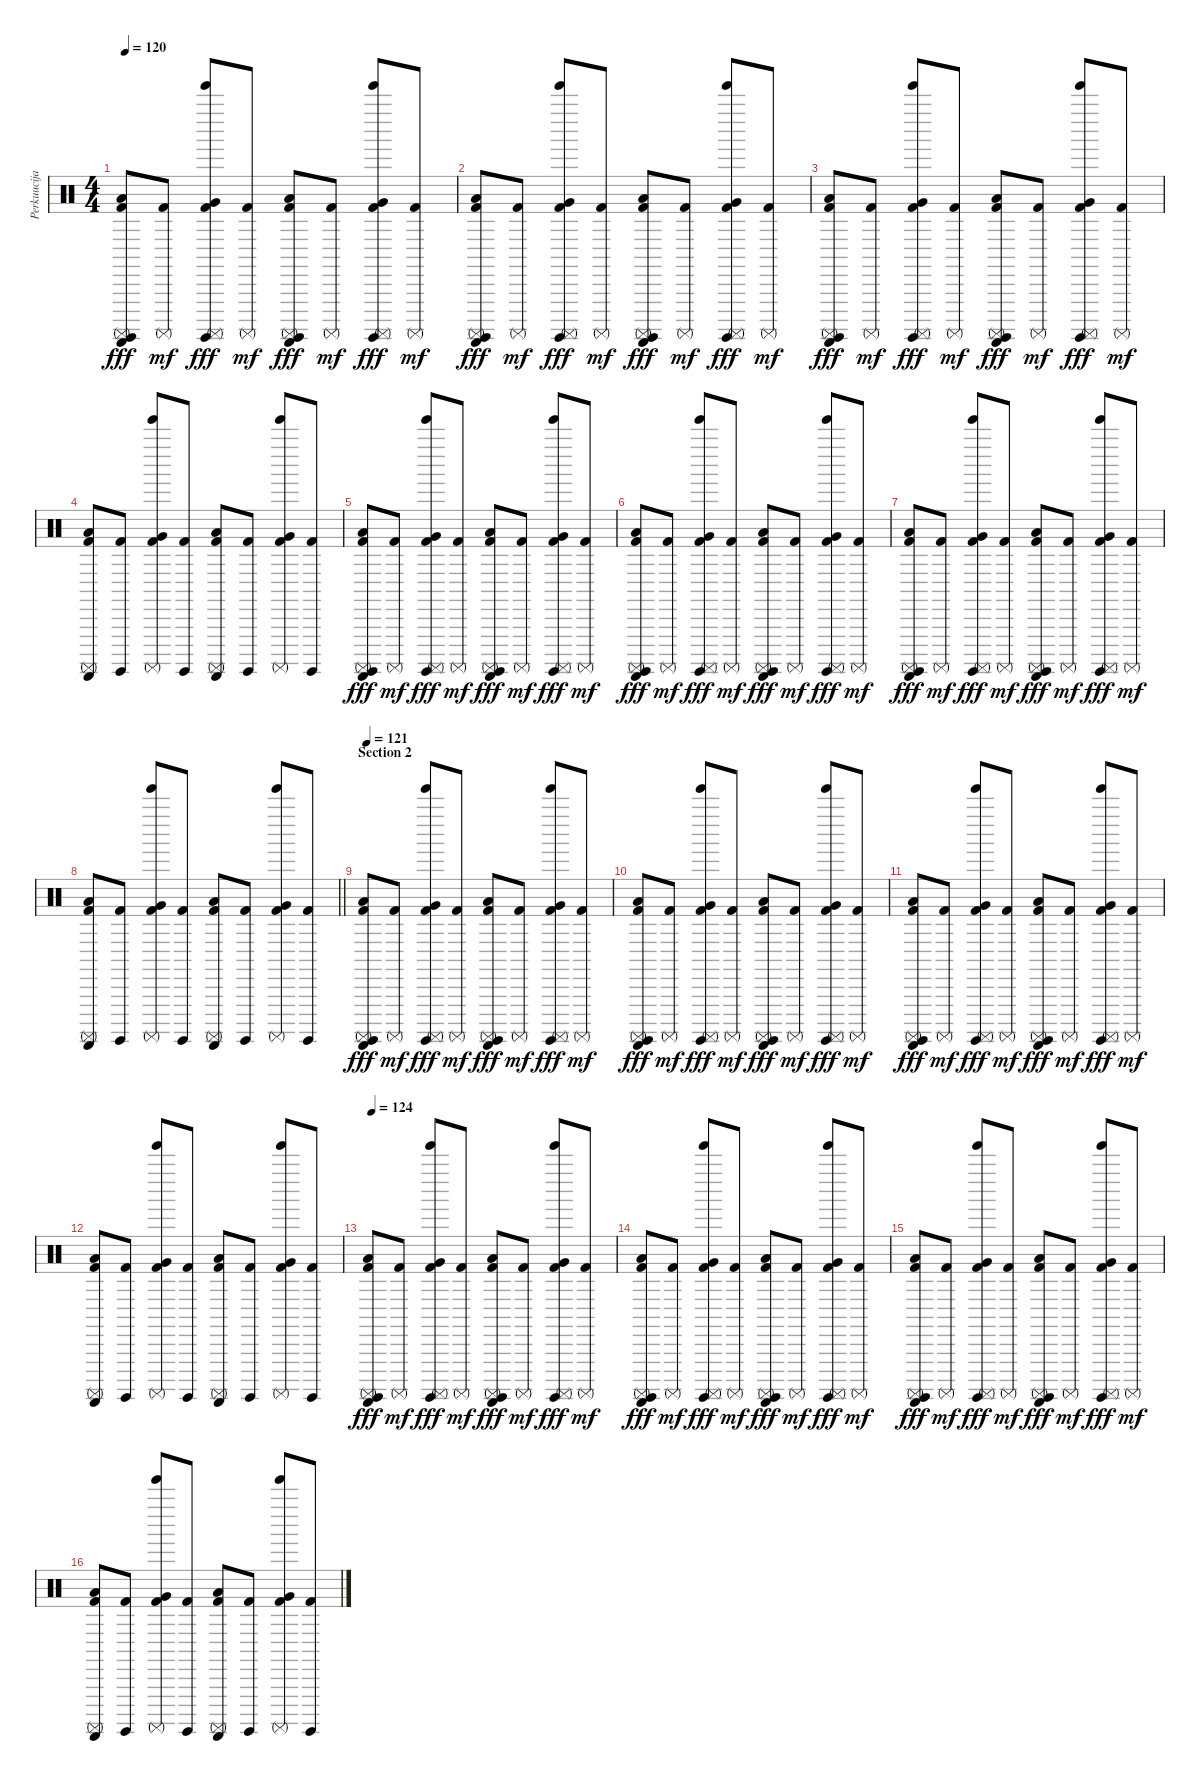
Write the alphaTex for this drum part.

\track ("Perkuucijas" "Perkuucija") {instrument percussion}
\staff {score}
\articulation defaults
\ts (4 4)
\tempo 120
\clef neutral
\ks c
("Kick (hit) 2" "Guiro (scrap-return)" "Low Floor Tom (hit)" "Surdo (hit)" "Surdo (mute)").8{dy fff} ("Kick (hit) 2" "Surdo (mute)").8{dy mf} ("Kick (hit) 2" "Tinkle Bell (hit)" "Very Low Tom (hit)" "Surdo (hit)" "Surdo (mute)").8{dy fff} ("Kick (hit) 2" "Surdo (mute)").8{dy mf} ("Kick (hit) 2" "Guiro (scrap-return)" "Low Tom (hit)" "Surdo (hit)" "Surdo (mute)").8{dy fff} ("Kick (hit) 2" "Surdo (mute)").8{dy mf} ("Kick (hit) 2" "Tinkle Bell (hit)" "Very Low Tom (hit)" "Surdo (hit)" "Surdo (mute)").8{dy fff} ("Kick (hit) 2" "Surdo (mute)").8{dy mf} |
("Kick (hit) 2" "Guiro (scrap-return)" "Low Floor Tom (hit)" "Surdo (hit)" "Surdo (mute)").8{dy fff} ("Kick (hit) 2" "Surdo (mute)").8{dy mf} ("Kick (hit) 2" "Tinkle Bell (hit)" "Very Low Tom (hit)" "Surdo (hit)" "Surdo (mute)").8{dy fff} ("Kick (hit) 2" "Surdo (mute)").8{dy mf} ("Kick (hit) 2" "Guiro (scrap-return)" "Low Tom (hit)" "Surdo (hit)" "Surdo (mute)").8{dy fff} ("Kick (hit) 2" "Surdo (mute)").8{dy mf} ("Kick (hit) 2" "Tinkle Bell (hit)" "Very Low Tom (hit)" "Surdo (hit)" "Surdo (mute)").8{dy fff} ("Kick (hit) 2" "Surdo (mute)").8{dy mf} |
("Kick (hit) 2" "Guiro (scrap-return)" "Low Floor Tom (hit)" "Surdo (hit)" "Surdo (mute)").8{dy fff} ("Kick (hit) 2" "Surdo (mute)").8{dy mf} ("Kick (hit) 2" "Tinkle Bell (hit)" "Very Low Tom (hit)" "Surdo (hit)" "Surdo (mute)").8{dy fff} ("Kick (hit) 2" "Surdo (mute)").8{dy mf} ("Kick (hit) 2" "Guiro (scrap-return)" "Low Tom (hit)" "Surdo (hit)" "Surdo (mute)").8{dy fff} ("Kick (hit) 2" "Surdo (mute)").8{dy mf} ("Kick (hit) 2" "Tinkle Bell (hit)" "Very Low Tom (hit)" "Surdo (hit)" "Surdo (mute)").8{dy fff} ("Kick (hit) 2" "Surdo (mute)").8{dy mf} |
("Kick (hit) 2" "Guiro (scrap-return)" "Low Floor Tom (hit)" "Surdo (mute)").8 ("Kick (hit) 2" "Surdo (hit)").8 ("Kick (hit) 2" "Tinkle Bell (hit)" "Very Low Tom (hit)" "Surdo (mute)").8 ("Kick (hit) 2" "Surdo (hit)").8 ("Kick (hit) 2" "Guiro (scrap-return)" "Low Tom (hit)" "Surdo (mute)").8 ("Kick (hit) 2" "Surdo (hit)").8 ("Kick (hit) 2" "Tinkle Bell (hit)" "Very Low Tom (hit)" "Surdo (mute)").8 ("Kick (hit) 2" "Surdo (hit)").8 |
("Kick (hit) 2" "Guiro (scrap-return)" "Low Floor Tom (hit)" "Surdo (hit)" "Surdo (mute)").8{dy fff} ("Kick (hit) 2" "Surdo (mute)").8{dy mf} ("Kick (hit) 2" "Tinkle Bell (hit)" "Very Low Tom (hit)" "Surdo (hit)" "Surdo (mute)").8{dy fff} ("Kick (hit) 2" "Surdo (mute)").8{dy mf} ("Kick (hit) 2" "Guiro (scrap-return)" "Low Tom (hit)" "Surdo (hit)" "Surdo (mute)").8{dy fff} ("Kick (hit) 2" "Surdo (mute)").8{dy mf} ("Kick (hit) 2" "Tinkle Bell (hit)" "Very Low Tom (hit)" "Surdo (hit)" "Surdo (mute)").8{dy fff} ("Kick (hit) 2" "Surdo (mute)").8{dy mf} |
("Kick (hit) 2" "Guiro (scrap-return)" "Low Floor Tom (hit)" "Surdo (hit)" "Surdo (mute)").8{dy fff} ("Kick (hit) 2" "Surdo (mute)").8{dy mf} ("Kick (hit) 2" "Tinkle Bell (hit)" "Very Low Tom (hit)" "Surdo (hit)" "Surdo (mute)").8{dy fff} ("Kick (hit) 2" "Surdo (mute)").8{dy mf} ("Kick (hit) 2" "Guiro (scrap-return)" "Low Tom (hit)" "Surdo (hit)" "Surdo (mute)").8{dy fff} ("Kick (hit) 2" "Surdo (mute)").8{dy mf} ("Kick (hit) 2" "Tinkle Bell (hit)" "Very Low Tom (hit)" "Surdo (hit)" "Surdo (mute)").8{dy fff} ("Kick (hit) 2" "Surdo (mute)").8{dy mf} |
("Kick (hit) 2" "Guiro (scrap-return)" "Low Floor Tom (hit)" "Surdo (hit)" "Surdo (mute)").8{dy fff} ("Kick (hit) 2" "Surdo (mute)").8{dy mf} ("Kick (hit) 2" "Tinkle Bell (hit)" "Very Low Tom (hit)" "Surdo (hit)" "Surdo (mute)").8{dy fff} ("Kick (hit) 2" "Surdo (mute)").8{dy mf} ("Kick (hit) 2" "Guiro (scrap-return)" "Low Tom (hit)" "Surdo (hit)" "Surdo (mute)").8{dy fff} ("Kick (hit) 2" "Surdo (mute)").8{dy mf} ("Kick (hit) 2" "Tinkle Bell (hit)" "Very Low Tom (hit)" "Surdo (hit)" "Surdo (mute)").8{dy fff} ("Kick (hit) 2" "Surdo (mute)").8{dy mf} |
\barLineRight lightlight
("Kick (hit) 2" "Guiro (scrap-return)" "Low Floor Tom (hit)" "Surdo (mute)").8 ("Kick (hit) 2" "Surdo (hit)").8 ("Kick (hit) 2" "Tinkle Bell (hit)" "Very Low Tom (hit)" "Surdo (mute)").8 ("Kick (hit) 2" "Surdo (hit)").8 ("Kick (hit) 2" "Guiro (scrap-return)" "Low Tom (hit)" "Surdo (mute)").8 ("Kick (hit) 2" "Surdo (hit)").8 ("Kick (hit) 2" "Tinkle Bell (hit)" "Very Low Tom (hit)" "Surdo (mute)").8 ("Kick (hit) 2" "Surdo (hit)").8 |
\section ("" "Section 2")
\tempo 121
("Kick (hit) 2" "Guiro (scrap-return)" "Low Floor Tom (hit)" "Surdo (hit)" "Surdo (mute)").8{dy fff} ("Kick (hit) 2" "Surdo (mute)").8{dy mf} ("Kick (hit) 2" "Tinkle Bell (hit)" "Very Low Tom (hit)" "Surdo (hit)" "Surdo (mute)").8{dy fff} ("Kick (hit) 2" "Surdo (mute)").8{dy mf} ("Kick (hit) 2" "Guiro (scrap-return)" "Low Tom (hit)" "Surdo (hit)" "Surdo (mute)").8{dy fff} ("Kick (hit) 2" "Surdo (mute)").8{dy mf} ("Kick (hit) 2" "Tinkle Bell (hit)" "Very Low Tom (hit)" "Surdo (hit)" "Surdo (mute)").8{dy fff} ("Kick (hit) 2" "Surdo (mute)").8{dy mf} |
("Kick (hit) 2" "Guiro (scrap-return)" "Low Floor Tom (hit)" "Surdo (hit)" "Surdo (mute)").8{dy fff} ("Kick (hit) 2" "Surdo (mute)").8{dy mf} ("Kick (hit) 2" "Tinkle Bell (hit)" "Very Low Tom (hit)" "Surdo (hit)" "Surdo (mute)").8{dy fff} ("Kick (hit) 2" "Surdo (mute)").8{dy mf} ("Kick (hit) 2" "Guiro (scrap-return)" "Low Tom (hit)" "Surdo (hit)" "Surdo (mute)").8{dy fff} ("Kick (hit) 2" "Surdo (mute)").8{dy mf} ("Kick (hit) 2" "Tinkle Bell (hit)" "Very Low Tom (hit)" "Surdo (hit)" "Surdo (mute)").8{dy fff} ("Kick (hit) 2" "Surdo (mute)").8{dy mf} |
("Kick (hit) 2" "Guiro (scrap-return)" "Low Floor Tom (hit)" "Surdo (hit)" "Surdo (mute)").8{dy fff} ("Kick (hit) 2" "Surdo (mute)").8{dy mf} ("Kick (hit) 2" "Tinkle Bell (hit)" "Very Low Tom (hit)" "Surdo (hit)" "Surdo (mute)").8{dy fff} ("Kick (hit) 2" "Surdo (mute)").8{dy mf} ("Kick (hit) 2" "Guiro (scrap-return)" "Low Tom (hit)" "Surdo (hit)" "Surdo (mute)").8{dy fff} ("Kick (hit) 2" "Surdo (mute)").8{dy mf} ("Kick (hit) 2" "Tinkle Bell (hit)" "Very Low Tom (hit)" "Surdo (hit)" "Surdo (mute)").8{dy fff} ("Kick (hit) 2" "Surdo (mute)").8{dy mf} |
("Kick (hit) 2" "Guiro (scrap-return)" "Low Floor Tom (hit)" "Surdo (mute)").8 ("Kick (hit) 2" "Surdo (hit)").8 ("Kick (hit) 2" "Tinkle Bell (hit)" "Very Low Tom (hit)" "Surdo (mute)").8 ("Kick (hit) 2" "Surdo (hit)").8 ("Kick (hit) 2" "Guiro (scrap-return)" "Low Tom (hit)" "Surdo (mute)").8 ("Kick (hit) 2" "Surdo (hit)").8 ("Kick (hit) 2" "Tinkle Bell (hit)" "Very Low Tom (hit)" "Surdo (mute)").8 ("Kick (hit) 2" "Surdo (hit)").8 |
\tempo 124
("Kick (hit) 2" "Guiro (scrap-return)" "Low Floor Tom (hit)" "Surdo (hit)" "Surdo (mute)").8{dy fff} ("Kick (hit) 2" "Surdo (mute)").8{dy mf} ("Kick (hit) 2" "Tinkle Bell (hit)" "Very Low Tom (hit)" "Surdo (hit)" "Surdo (mute)").8{dy fff} ("Kick (hit) 2" "Surdo (mute)").8{dy mf} ("Kick (hit) 2" "Guiro (scrap-return)" "Low Tom (hit)" "Surdo (hit)" "Surdo (mute)").8{dy fff} ("Kick (hit) 2" "Surdo (mute)").8{dy mf} ("Kick (hit) 2" "Tinkle Bell (hit)" "Very Low Tom (hit)" "Surdo (hit)" "Surdo (mute)").8{dy fff} ("Kick (hit) 2" "Surdo (mute)").8{dy mf} |
("Kick (hit) 2" "Guiro (scrap-return)" "Low Floor Tom (hit)" "Surdo (hit)" "Surdo (mute)").8{dy fff} ("Kick (hit) 2" "Surdo (mute)").8{dy mf} ("Kick (hit) 2" "Tinkle Bell (hit)" "Very Low Tom (hit)" "Surdo (hit)" "Surdo (mute)").8{dy fff} ("Kick (hit) 2" "Surdo (mute)").8{dy mf} ("Kick (hit) 2" "Guiro (scrap-return)" "Low Tom (hit)" "Surdo (hit)" "Surdo (mute)").8{dy fff} ("Kick (hit) 2" "Surdo (mute)").8{dy mf} ("Kick (hit) 2" "Tinkle Bell (hit)" "Very Low Tom (hit)" "Surdo (hit)" "Surdo (mute)").8{dy fff} ("Kick (hit) 2" "Surdo (mute)").8{dy mf} |
("Kick (hit) 2" "Guiro (scrap-return)" "Low Floor Tom (hit)" "Surdo (hit)" "Surdo (mute)").8{dy fff} ("Kick (hit) 2" "Surdo (mute)").8{dy mf} ("Kick (hit) 2" "Tinkle Bell (hit)" "Very Low Tom (hit)" "Surdo (hit)" "Surdo (mute)").8{dy fff} ("Kick (hit) 2" "Surdo (mute)").8{dy mf} ("Kick (hit) 2" "Guiro (scrap-return)" "Low Tom (hit)" "Surdo (hit)" "Surdo (mute)").8{dy fff} ("Kick (hit) 2" "Surdo (mute)").8{dy mf} ("Kick (hit) 2" "Tinkle Bell (hit)" "Very Low Tom (hit)" "Surdo (hit)" "Surdo (mute)").8{dy fff} ("Kick (hit) 2" "Surdo (mute)").8{dy mf} |
("Kick (hit) 2" "Guiro (scrap-return)" "Low Floor Tom (hit)" "Surdo (mute)").8 ("Kick (hit) 2" "Surdo (hit)").8 ("Kick (hit) 2" "Tinkle Bell (hit)" "Very Low Tom (hit)" "Surdo (mute)").8 ("Kick (hit) 2" "Surdo (hit)").8 ("Kick (hit) 2" "Guiro (scrap-return)" "Low Tom (hit)" "Surdo (mute)").8 ("Kick (hit) 2" "Surdo (hit)").8 ("Kick (hit) 2" "Tinkle Bell (hit)" "Very Low Tom (hit)" "Surdo (mute)").8 ("Kick (hit) 2" "Surdo (hit)").8
